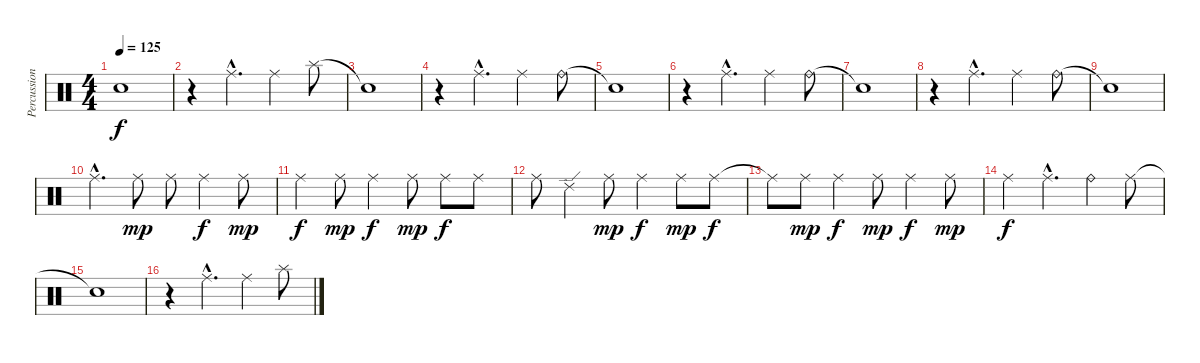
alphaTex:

\track ("Percussion" "Percussion") {instrument percussion}
\staff {score}
\articulation defaults
\ts (4 4)
\tempo 125
\clef neutral
\ks c "Snare (hit)"{t}.1{dy f}
|
r.4 "Ride (middle)"{hac}.4{d} "Ride (middle)".4 "Splash (hit)".8 |
"Snare (hit)"{t}.1 |
r.4 "Ride (middle)"{hac}.4{d} "Ride (middle)".4 "Ride (bell)".8 |
"Snare (hit)"{t}.1 |
r.4 "Ride (middle)"{hac}.4{d} "Ride (middle)".4 "Ride (bell)".8 |
"Snare (hit)"{t}.1 |
r.4 "Ride (middle)"{hac}.4{d} "Ride (middle)".4 "Ride (bell)".8 |
"Snare (hit)"{t}.1 |
"Ride (middle)"{hac}.4{d} "Ride (middle)".8{dy mp} "Ride (middle)".8 "Ride (middle)".4{dy f} "Ride (middle)".8{dy mp} |
"Ride (middle)".4{dy f} "Ride (middle)".8{dy mp} "Ride (middle)".4{dy f} "Ride (middle)".8{dy mp} "Ride (middle)".8{dy f} "Ride (middle)".8 |
"Ride (middle)".8 "Ride (edge) 2".4 "Ride (middle)".8{dy mp} "Ride (middle)".4{dy f} "Ride (middle)".8{dy mp} "Ride (middle)".8{dy f} |
"Ride (middle)"{t}.8 "Ride (middle)".8{dy mp} "Ride (middle)".4{dy f} "Ride (middle)".8{dy mp} "Ride (middle)".4{dy f} "Ride (middle)".8{dy mp} |
"Ride (middle)".4{dy f} "Ride (middle)"{hac}.4{d} "Ride (bell)".4 "Ride (middle)".8 |
"Snare (hit)"{t}.1 |
r.4 "Ride (middle)"{hac}.4{d} "Ride (middle)".4 "Splash (hit)".8
